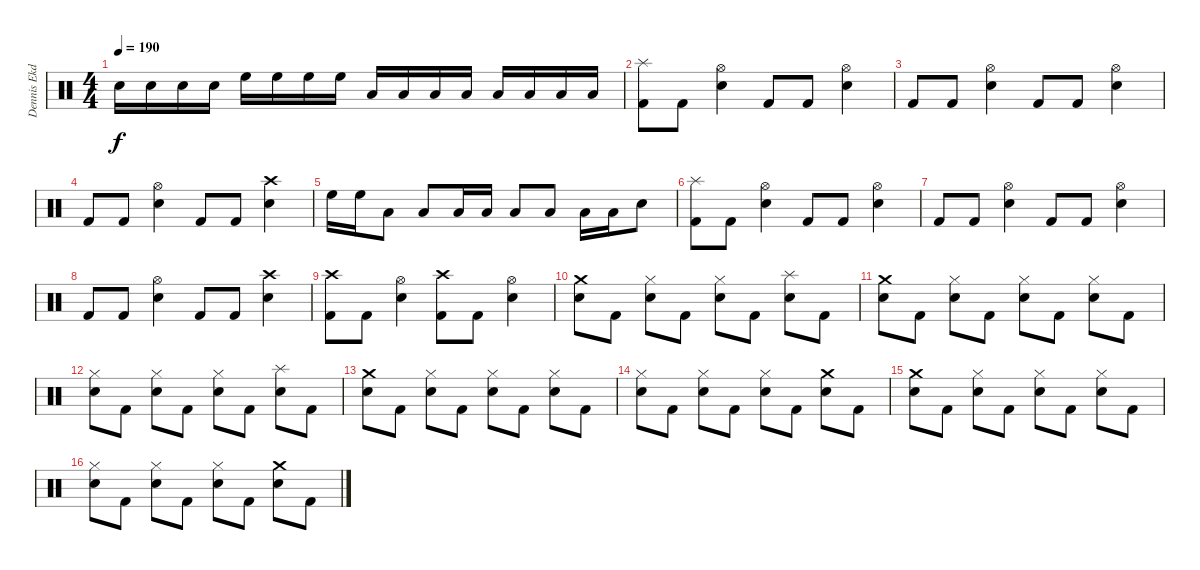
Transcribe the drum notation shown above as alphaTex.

\track ("Dennis Ekdahl" "Dennis Ekd") {instrument percussion}
\staff {score}
\articulation defaults
\ts (4 4)
\tempo 190
\clef neutral
\ks c "Snare (hit) 2".16{dy f} "Snare (hit) 2".16 "Snare (hit) 2".16 "Snare (hit) 2".16 "High Floor Tom (hit)".16 "High Floor Tom (hit)".16 "High Floor Tom (hit)".16 "High Floor Tom (hit)".16 "Low Tom (hit)".16 "Low Tom (hit)".16 "Low Tom (hit)".16 "Low Tom (hit)".16 "Low Floor Tom (hit)".16 "Low Floor Tom (hit)".16 "Low Floor Tom (hit)".16 "Low Floor Tom (hit)".16
|
("Splash (hit)" "Kick (hit) 2").8 "Kick (hit) 2".8 ("Hi-Hat (open)" "Snare (hit) 2").4 "Kick (hit) 2".8 "Kick (hit) 2".8 ("Hi-Hat (open)" "Snare (hit) 2").4 |
"Kick (hit) 2".8 "Kick (hit) 2".8 ("Hi-Hat (open)" "Snare (hit) 2").4 "Kick (hit) 2".8 "Kick (hit) 2".8 ("Hi-Hat (open)" "Snare (hit) 2").4 |
"Kick (hit) 2".8 "Kick (hit) 2".8 ("Hi-Hat (open)" "Snare (hit) 2").4 "Kick (hit) 2".8 "Kick (hit) 2".8 ("Crash high (hit)" "Snare (hit) 2").4 |
"High Floor Tom (hit)".16 "High Floor Tom (hit)".16 "Low Tom (hit)".8 "Low Tom (hit)".8 "Low Tom (hit)".16 "Low Tom (hit)".16 "Low Floor Tom (hit)".8 "Low Floor Tom (hit)".8 "Low Floor Tom (hit)".16 "Low Floor Tom (hit)".16 "Snare (hit) 2".8 |
("Splash (hit)" "Kick (hit) 2").8 "Kick (hit) 2".8 ("Hi-Hat (open)" "Snare (hit) 2").4 "Kick (hit) 2".8 "Kick (hit) 2".8 ("Hi-Hat (open)" "Snare (hit) 2").4 |
"Kick (hit) 2".8 "Kick (hit) 2".8 ("Hi-Hat (open)" "Snare (hit) 2").4 "Kick (hit) 2".8 "Kick (hit) 2".8 ("Hi-Hat (open)" "Snare (hit) 2").4 |
"Kick (hit) 2".8 "Kick (hit) 2".8 ("Hi-Hat (open)" "Snare (hit) 2").4 "Kick (hit) 2".8 "Kick (hit) 2".8 ("Crash high (hit)" "Snare (hit) 2").4 |
("Crash high (hit)" "Kick (hit) 2").8 "Kick (hit) 2".8 ("Hi-Hat (open)" "Snare (hit) 2").4 ("Crash high (hit)" "Kick (hit) 2").8 "Kick (hit) 2".8 ("Hi-Hat (open)" "Snare (hit) 2").4 |
("Crash medium (hit)" "Snare (hit) 2").8 "Kick (hit) 2".8 ("Hi-Hat (closed)" "Snare (hit) 2").8 "Kick (hit) 2".8 ("Hi-Hat (closed)" "Snare (hit) 2").8 "Kick (hit) 2".8 ("Splash (hit)" "Snare (hit) 2").8 "Kick (hit) 2".8 |
("Crash medium (hit)" "Snare (hit) 2").8 "Kick (hit) 2".8 ("Hi-Hat (closed)" "Snare (hit) 2").8 "Kick (hit) 2".8 ("Hi-Hat (closed)" "Snare (hit) 2").8 "Kick (hit) 2".8 ("Hi-Hat (closed)" "Snare (hit) 2").8 "Kick (hit) 2".8 |
("Hi-Hat (closed)" "Snare (hit) 2").8 "Kick (hit) 2".8 ("Hi-Hat (closed)" "Snare (hit) 2").8 "Kick (hit) 2".8 ("Hi-Hat (closed)" "Snare (hit) 2").8 "Kick (hit) 2".8 ("Splash (hit)" "Snare (hit) 2").8 "Kick (hit) 2".8 |
("Crash medium (hit)" "Snare (hit) 2").8 "Kick (hit) 2".8 ("Hi-Hat (closed)" "Snare (hit) 2").8 "Kick (hit) 2".8 ("Hi-Hat (closed)" "Snare (hit) 2").8 "Kick (hit) 2".8 ("Hi-Hat (closed)" "Snare (hit) 2").8 "Kick (hit) 2".8 |
("Hi-Hat (closed)" "Snare (hit) 2").8 "Kick (hit) 2".8 ("Hi-Hat (closed)" "Snare (hit) 2").8 "Kick (hit) 2".8 ("Hi-Hat (closed)" "Snare (hit) 2").8 "Kick (hit) 2".8 ("Crash medium (hit)" "Snare (hit) 2").8 "Kick (hit) 2".8 |
("Crash medium (hit)" "Snare (hit) 2").8 "Kick (hit) 2".8 ("Hi-Hat (closed)" "Snare (hit) 2").8 "Kick (hit) 2".8 ("Hi-Hat (closed)" "Snare (hit) 2").8 "Kick (hit) 2".8 ("Hi-Hat (closed)" "Snare (hit) 2").8 "Kick (hit) 2".8 |
("Hi-Hat (closed)" "Snare (hit) 2").8 "Kick (hit) 2".8 ("Hi-Hat (closed)" "Snare (hit) 2").8 "Kick (hit) 2".8 ("Hi-Hat (closed)" "Snare (hit) 2").8 "Kick (hit) 2".8 ("Crash medium (hit)" "Snare (hit) 2").8 "Kick (hit) 2".8
